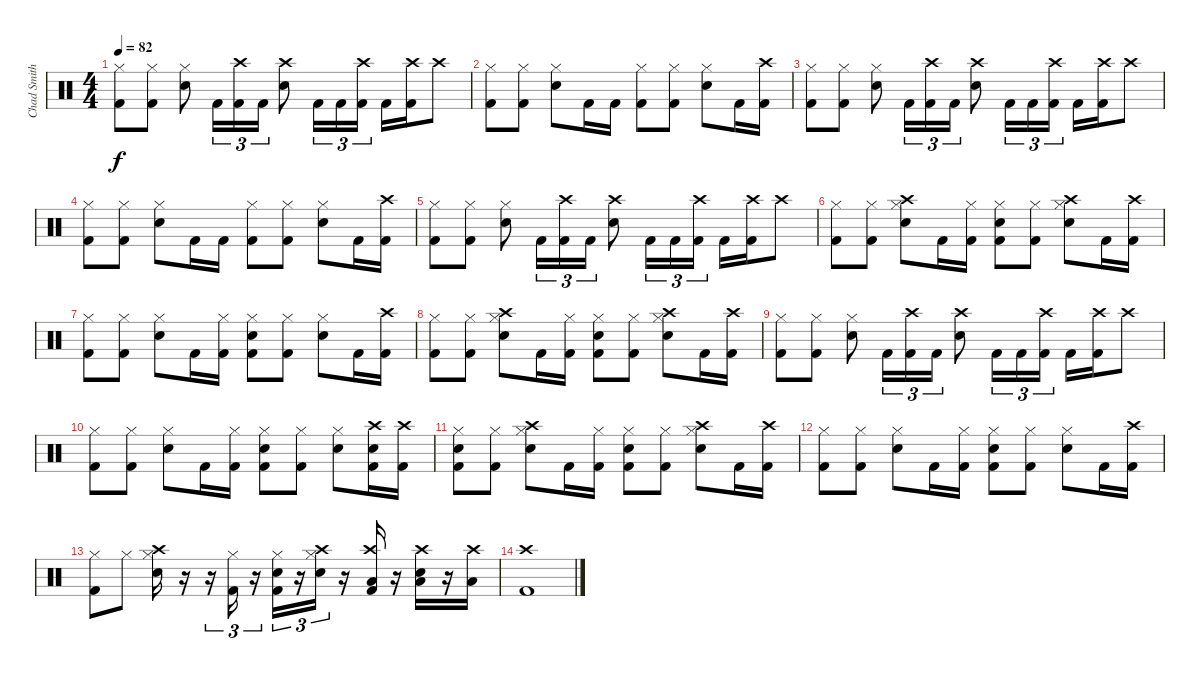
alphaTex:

\track ("Chad Smith Drum" "Chad Smith") {instrument percussion}
\staff {score}
\articulation defaults
\ts (4 4)
\tempo 82
\clef neutral
\ks c
("Kick (hit) 2" "Hi-Hat (closed)").8{dy f} ("Kick (hit) 2" "Hi-Hat (closed)").8 ("Snare (hit) 2" "Hi-Hat (closed)").8 "Kick (hit) 2".16{tu (3 2)} ("Kick (hit) 2" "Crash high (hit)").16{tu (3 2)} "Kick (hit) 2".16{tu (3 2)} ("Snare (hit) 2" "Crash high (hit)").8 "Kick (hit) 2".16{tu (3 2)} "Kick (hit) 2".16{tu (3 2)} ("Kick (hit) 2" "Crash high (hit)").16{tu (3 2)} "Kick (hit) 2".16 ("Kick (hit) 2" "Crash high (hit)").16 "Crash high (hit)".8 |
("Kick (hit) 2" "Hi-Hat (closed)").8 ("Kick (hit) 2" "Hi-Hat (closed)").8 ("Snare (hit) 2" "Hi-Hat (closed)").8 "Kick (hit) 2".16 "Kick (hit) 2".16 ("Kick (hit) 2" "Hi-Hat (closed)").8 ("Kick (hit) 2" "Hi-Hat (closed)").8 ("Snare (hit) 2" "Hi-Hat (closed)").8 "Kick (hit) 2".16 ("Kick (hit) 2" "Crash high (hit)").16 |
("Kick (hit) 2" "Hi-Hat (closed)").8 ("Kick (hit) 2" "Hi-Hat (closed)").8 ("Snare (hit) 2" "Hi-Hat (closed)").8 "Kick (hit) 2".16{tu (3 2)} ("Kick (hit) 2" "Crash high (hit)").16{tu (3 2)} "Kick (hit) 2".16{tu (3 2)} ("Snare (hit) 2" "Crash high (hit)").8 "Kick (hit) 2".16{tu (3 2)} "Kick (hit) 2".16{tu (3 2)} ("Kick (hit) 2" "Crash high (hit)").16{tu (3 2)} "Kick (hit) 2".16 ("Kick (hit) 2" "Crash high (hit)").16 "Crash high (hit)".8 |
("Kick (hit) 2" "Hi-Hat (closed)").8 ("Kick (hit) 2" "Hi-Hat (closed)").8 ("Snare (hit) 2" "Hi-Hat (closed)").8 "Kick (hit) 2".16 "Kick (hit) 2".16 ("Kick (hit) 2" "Hi-Hat (closed)").8 ("Kick (hit) 2" "Hi-Hat (closed)").8 ("Snare (hit) 2" "Hi-Hat (closed)").8 "Kick (hit) 2".16 ("Kick (hit) 2" "Crash high (hit)").16 |
("Kick (hit) 2" "Hi-Hat (closed)").8 ("Kick (hit) 2" "Hi-Hat (closed)").8 ("Snare (hit) 2" "Hi-Hat (closed)").8 "Kick (hit) 2".16{tu (3 2)} ("Kick (hit) 2" "Crash high (hit)").16{tu (3 2)} "Kick (hit) 2".16{tu (3 2)} ("Snare (hit) 2" "Crash high (hit)").8 "Kick (hit) 2".16{tu (3 2)} "Kick (hit) 2".16{tu (3 2)} ("Kick (hit) 2" "Crash high (hit)").16{tu (3 2)} "Kick (hit) 2".16 ("Kick (hit) 2" "Crash high (hit)").16 "Crash high (hit)".8 |
("Kick (hit) 2" "Hi-Hat (closed)").8 ("Kick (hit) 2" "Hi-Hat (closed)").8 ("Snare (hit) 2" "Hi-Hat (closed)" "Crash high (hit)").8 "Kick (hit) 2".16 ("Kick (hit) 2" "Hi-Hat (closed)").16 ("Kick (hit) 2" "Hi-Hat (closed)" "Snare (hit) 2").8 ("Kick (hit) 2" "Hi-Hat (closed)").8 ("Snare (hit) 2" "Hi-Hat (closed)" "Crash high (hit)").8 "Kick (hit) 2".16 ("Kick (hit) 2" "Crash high (hit)").16 |
("Kick (hit) 2" "Hi-Hat (closed)").8 ("Kick (hit) 2" "Hi-Hat (closed)").8 ("Snare (hit) 2" "Hi-Hat (closed)").8 "Kick (hit) 2".16 ("Kick (hit) 2" "Hi-Hat (closed)").16 ("Kick (hit) 2" "Hi-Hat (closed)" "Snare (hit) 2").8 ("Kick (hit) 2" "Hi-Hat (closed)").8 ("Snare (hit) 2" "Hi-Hat (closed)").8 "Kick (hit) 2".16 ("Kick (hit) 2" "Crash high (hit)").16 |
("Kick (hit) 2" "Hi-Hat (closed)").8 ("Kick (hit) 2" "Hi-Hat (closed)").8 ("Snare (hit) 2" "Hi-Hat (closed)" "Crash high (hit)").8 "Kick (hit) 2".16 ("Kick (hit) 2" "Hi-Hat (closed)").16 ("Kick (hit) 2" "Hi-Hat (closed)" "Snare (hit) 2").8 ("Kick (hit) 2" "Hi-Hat (closed)").8 ("Snare (hit) 2" "Hi-Hat (closed)" "Crash high (hit)").8 "Kick (hit) 2".16 ("Kick (hit) 2" "Crash high (hit)").16 |
("Kick (hit) 2" "Hi-Hat (closed)").8 ("Kick (hit) 2" "Hi-Hat (closed)").8 ("Snare (hit) 2" "Hi-Hat (closed)").8 "Kick (hit) 2".16{tu (3 2)} ("Kick (hit) 2" "Crash high (hit)").16{tu (3 2)} "Kick (hit) 2".16{tu (3 2)} ("Snare (hit) 2" "Crash high (hit)").8 "Kick (hit) 2".16{tu (3 2)} "Kick (hit) 2".16{tu (3 2)} ("Kick (hit) 2" "Crash high (hit)").16{tu (3 2)} "Kick (hit) 2".16 ("Kick (hit) 2" "Crash high (hit)").16 "Crash high (hit)".8 |
("Kick (hit) 2" "Hi-Hat (closed)").8 ("Kick (hit) 2" "Hi-Hat (closed)").8 ("Snare (hit) 2" "Hi-Hat (closed)").8 "Kick (hit) 2".16 ("Kick (hit) 2" "Hi-Hat (closed)").16 ("Kick (hit) 2" "Hi-Hat (closed)" "Snare (hit) 2").8 ("Kick (hit) 2" "Hi-Hat (closed)").8 ("Snare (hit) 2" "Hi-Hat (closed)").8 ("Kick (hit) 2" "Crash high (hit)" "Snare (hit) 2").16 ("Kick (hit) 2" "Crash high (hit)").16 |
("Kick (hit) 2" "Hi-Hat (closed)" "Snare (hit) 2").8 ("Kick (hit) 2" "Hi-Hat (closed)").8 ("Snare (hit) 2" "Hi-Hat (closed)" "Crash high (hit)").8 "Kick (hit) 2".16 ("Kick (hit) 2" "Hi-Hat (closed)").16 ("Kick (hit) 2" "Hi-Hat (closed)" "Snare (hit) 2").8 ("Kick (hit) 2" "Hi-Hat (closed)").8 ("Snare (hit) 2" "Hi-Hat (closed)" "Crash high (hit)").8 "Kick (hit) 2".16 ("Kick (hit) 2" "Crash high (hit)").16 |
("Kick (hit) 2" "Hi-Hat (closed)").8 ("Kick (hit) 2" "Hi-Hat (closed)").8 ("Snare (hit) 2" "Hi-Hat (closed)").8 "Kick (hit) 2".16 ("Kick (hit) 2" "Hi-Hat (closed)").16 ("Kick (hit) 2" "Hi-Hat (closed)" "Snare (hit) 2").8 ("Kick (hit) 2" "Hi-Hat (closed)").8 ("Snare (hit) 2" "Hi-Hat (closed)").8 "Kick (hit) 2".16 ("Kick (hit) 2" "Crash high (hit)").16 |
("Kick (hit) 2" "Hi-Hat (closed)").8 "Hi-Hat (closed)".8 ("Snare (hit) 2" "Hi-Hat (closed)" "Crash high (hit)").16 r.16 r.16{tu (3 2)} ("Kick (hit) 2" "Hi-Hat (closed)").16{tu (3 2)} r.16{tu (3 2)} ("Kick (hit) 2" "Hi-Hat (closed)" "Snare (hit) 2").16{tu (3 2)} r.16{tu (3 2)} ("Snare (hit) 2" "Hi-Hat (closed)" "Crash high (hit)").16{tu (3 2)} r.16 ("Kick (hit) 2" "Low Tom (hit)" "Crash high (hit)").16 r.16 ("Snare (hit) 2" "Low Tom (hit)" "Crash high (hit)").16 r.16 ("Low Tom (hit)" "Crash high (hit)").16 |
("Kick (hit) 2" "Crash high (hit)").1
